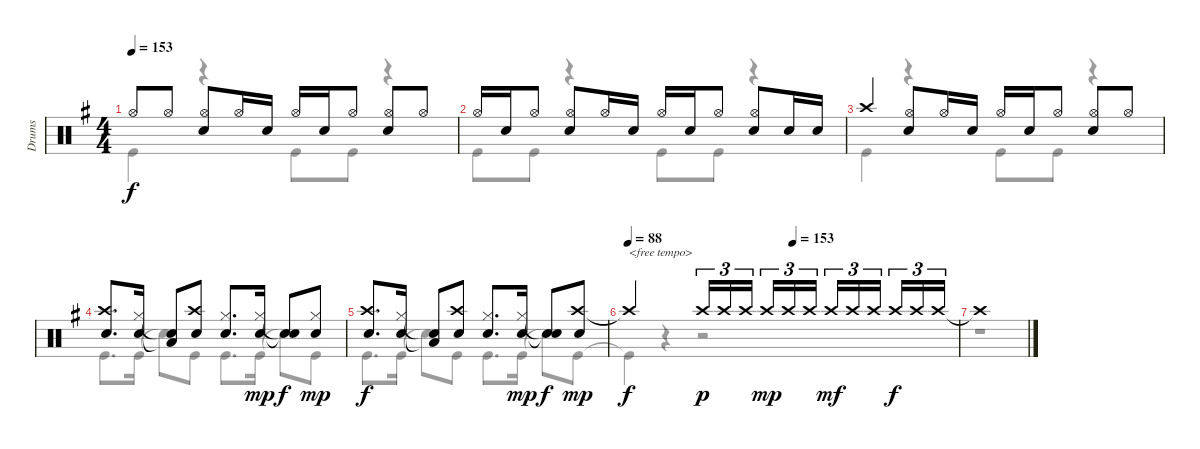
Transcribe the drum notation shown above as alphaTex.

\track ("Drums" "Drums") {instrument percussion}
\staff {score}
\articulation defaults
\voice
\ts (4 4)
\tempo 153
\clef neutral
\ks g "Hi-Hat (open)".8{dy f} "Hi-Hat (open)".8
("Hi-Hat (open)" "Snare (hit) 2").8 "Hi-Hat (open)".16 "Snare (hit) 2".16 "Hi-Hat (open)".16 "Snare (hit) 2".16 "Hi-Hat (open)".8 ("Hi-Hat (open)" "Snare (hit) 2").8 "Hi-Hat (open)".8 |
"Hi-Hat (open)".16 "Snare (hit) 2".16 "Hi-Hat (open)".8 ("Hi-Hat (open)" "Snare (hit) 2").8 "Hi-Hat (open)".16 "Snare (hit) 2".16 "Hi-Hat (open)".16 "Snare (hit) 2".16 "Hi-Hat (open)".8 ("Hi-Hat (open)" "Snare (hit) 2").8 "Snare (hit) 2".16 "Snare (hit) 2".16 |
"Crash high (hit)".4 ("Hi-Hat (open)" "Snare (hit) 2").8 "Hi-Hat (open)".16 "Snare (hit) 2".16 "Hi-Hat (open)".16 "Snare (hit) 2".16 "Hi-Hat (open)".8 ("Hi-Hat (open)" "Snare (hit) 2").8 "Hi-Hat (open)".8 |
("Crash high (hit)" "Snare (hit) 2").8{d} ("Hi-Hat (closed)" "Snare (hit) 2").16 ("Snare (hit)"{t} "Low Tom (hit)"{t}).8 ("Crash high (hit)" "Snare (hit) 2").8 ("Hi-Hat (closed)" "Snare (hit) 2").8{d} ("Hi-Hat (closed)" "Snare (hit) 2").16{dy mp} ("Snare (hit)"{t} "Snare (hit)"{t}).8{dy f} ("Hi-Hat (closed)" "Snare (hit) 2").8{dy mp} |
("Crash high (hit)" "Snare (hit) 2").8{d dy f} ("Hi-Hat (closed)" "Snare (hit) 2").16 ("Snare (hit)"{t} "Low Tom (hit)"{t}).8 ("Crash high (hit)" "Snare (hit) 2").8 ("Hi-Hat (closed)" "Snare (hit) 2").8{d} ("Hi-Hat (closed)" "Snare (hit) 2").16{dy mp} ("Snare (hit)"{t} "Snare (hit)"{t}).8{dy f} ("Crash high (hit)" "Snare (hit) 2").8{dy mp} |
\tempo 88
\tempo (153 0.5)
"Crash high (hit)"{t}.2{txt "<free tempo>" dy f} "Crash high (hit)".16{tu (3 2) dy p} "Crash high (hit)".16{tu (3 2)} "Crash high (hit)".16{tu (3 2) beam splitsecondary} "Crash high (hit)".16{tu (3 2) dy mp} "Crash high (hit)".16{tu (3 2)} "Crash high (hit)".16{tu (3 2)} "Crash high (hit)".16{tu (3 2) dy mf} "Crash high (hit)".16{tu (3 2)} "Crash high (hit)".16{tu (3 2) beam splitsecondary} "Crash high (hit)".16{tu (3 2) dy f} "Crash high (hit)".16{tu (3 2)} "Crash high (hit)".16{tu (3 2)} |
"Crash high (hit)"{t}.1
\voice
\clef neutral
\ottava regular
\simile none
\ks g "Kick (hit)".4{dy f}
r.4 "Kick (hit)".8 "Kick (hit)".8 r.4 |
"Kick (hit)".8 "Kick (hit)".8 r.4 "Kick (hit)".8 "Kick (hit)".8 r.4 |
"Kick (hit)".4 r.4 "Kick (hit)".8 "Kick (hit)".8 r.4 |
"Kick (hit)".8{d} "Kick (hit)".16 "Snare (hit)"{t}.8 "Kick (hit)".8 "Kick (hit)".8{d} "Kick (hit)".16{dy mp} "Snare (hit)"{t}.8{dy f} "Kick (hit)".8{dy mp} |
"Kick (hit)".8{d dy f} "Kick (hit)".16 "Snare (hit)"{t}.8 "Kick (hit)".8 "Kick (hit)".8{d} "Kick (hit)".16{dy mp} "Snare (hit)"{t}.8{dy f} "Kick (hit)".8{dy mp} |
"Kick (hit)"{t}.4{dy f} r.4 r.2 |
r.1
